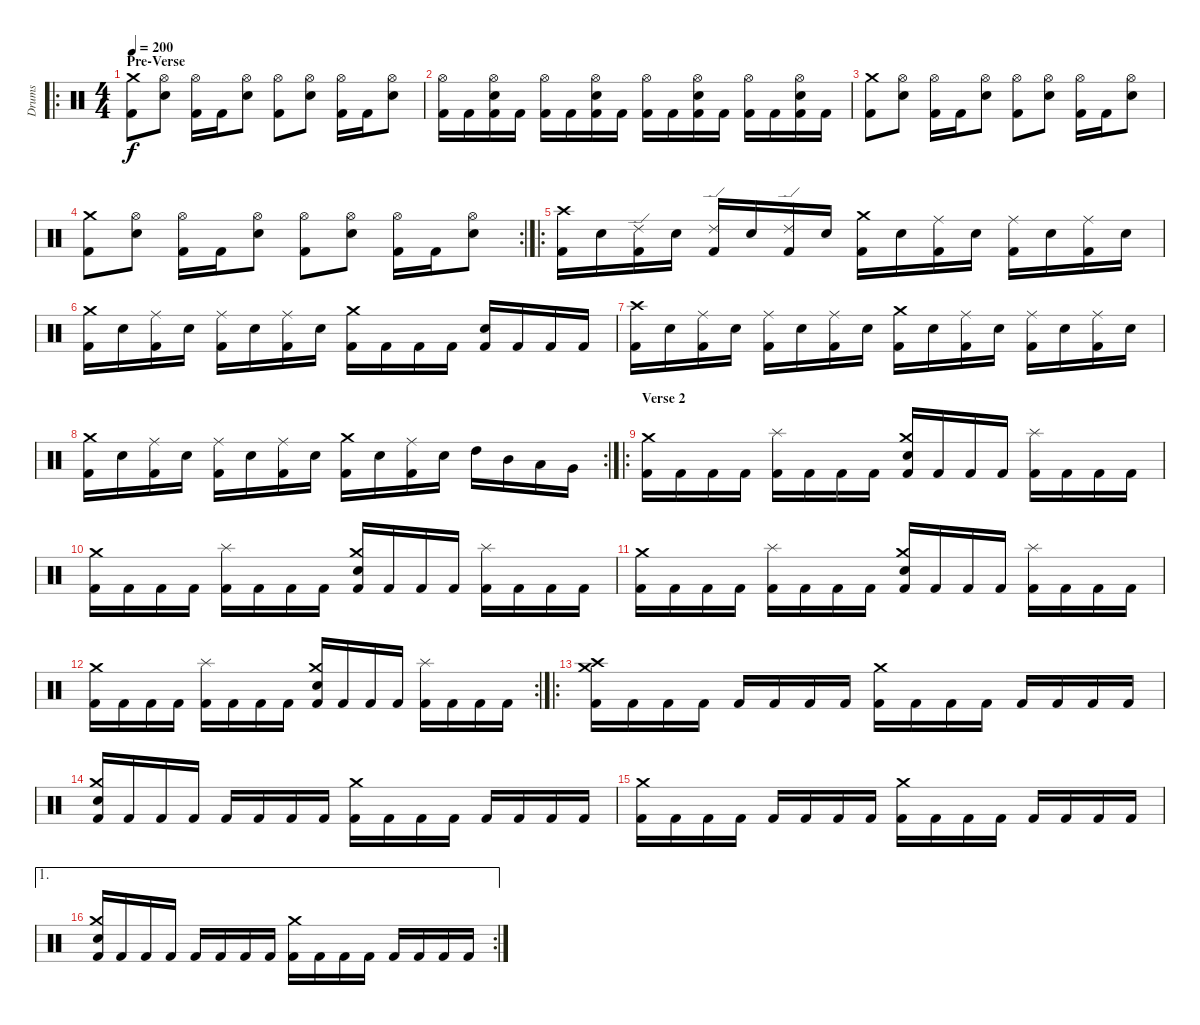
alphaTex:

\track ("Drums" "Drums") {instrument percussion}
\staff {score}
\articulation defaults
\ro
\ts (4 4)
\section ("" "Pre-Verse")
\tempo 200
\clef neutral
\ks c
("Kick (hit) 2" "Crash medium (hit)").8{dy f} ("Electric Snare (hit)" "Hi-Hat (open)").8 ("Kick (hit) 2" "Hi-Hat (open)").16 "Kick (hit) 2".16 ("Electric Snare (hit)" "Hi-Hat (open)").8 ("Kick (hit) 2" "Hi-Hat (open)").8 ("Electric Snare (hit)" "Hi-Hat (open)").8 ("Kick (hit) 2" "Hi-Hat (open)").16 "Kick (hit) 2".16 ("Electric Snare (hit)" "Hi-Hat (open)").8 |
("Kick (hit) 2" "Hi-Hat (open)").16 "Kick (hit) 2".16 ("Kick (hit) 2" "Electric Snare (hit)" "Hi-Hat (open)").16 "Kick (hit) 2".16 ("Kick (hit) 2" "Hi-Hat (open)").16 "Kick (hit) 2".16 ("Kick (hit) 2" "Electric Snare (hit)" "Hi-Hat (open)").16 "Kick (hit) 2".16 ("Kick (hit) 2" "Hi-Hat (open)").16 "Kick (hit) 2".16 ("Kick (hit) 2" "Electric Snare (hit)" "Hi-Hat (open)").16 "Kick (hit) 2".16 ("Kick (hit) 2" "Hi-Hat (open)").16 "Kick (hit) 2".16 ("Kick (hit) 2" "Electric Snare (hit)" "Hi-Hat (open)").16 "Kick (hit) 2".16 |
("Kick (hit) 2" "Crash medium (hit)").8 ("Electric Snare (hit)" "Hi-Hat (open)").8 ("Kick (hit) 2" "Hi-Hat (open)").16 "Kick (hit) 2".16 ("Electric Snare (hit)" "Hi-Hat (open)").8 ("Kick (hit) 2" "Hi-Hat (open)").8 ("Electric Snare (hit)" "Hi-Hat (open)").8 ("Kick (hit) 2" "Hi-Hat (open)").16 "Kick (hit) 2".16 ("Electric Snare (hit)" "Hi-Hat (open)").8 |
\rc 2
("Kick (hit) 2" "Crash medium (hit)").8 ("Electric Snare (hit)" "Hi-Hat (open)").8 ("Kick (hit) 2" "Hi-Hat (open)").16 "Kick (hit) 2".16 ("Electric Snare (hit)" "Hi-Hat (open)").8 ("Kick (hit) 2" "Hi-Hat (open)").8 ("Electric Snare (hit)" "Hi-Hat (open)").8 ("Kick (hit) 2" "Hi-Hat (open)").16 "Kick (hit) 2".16 ("Electric Snare (hit)" "Hi-Hat (open)").8 |
\ro
("Kick (hit) 2" "Crash high (hit)").16 "Electric Snare (hit)".16 ("Kick (hit) 2" "Ride (edge) 2").16 "Electric Snare (hit)".16 ("Kick (hit) 2" "Ride (edge) 2").16 "Electric Snare (hit)".16 ("Kick (hit) 2" "Ride (edge) 2").16 "Electric Snare (hit)".16 ("Kick (hit) 2" "Crash medium (hit)").16 "Electric Snare (hit)".16 ("Kick (hit) 2" "Ride (middle)").16 "Electric Snare (hit)".16 ("Kick (hit) 2" "Ride (middle)").16 "Electric Snare (hit)".16 ("Kick (hit) 2" "Ride (middle)").16 "Electric Snare (hit)".16 |
("Kick (hit) 2" "Crash medium (hit)").16 "Electric Snare (hit)".16 ("Kick (hit) 2" "Ride (middle)").16 "Electric Snare (hit)".16 ("Kick (hit) 2" "Ride (middle)").16 "Electric Snare (hit)".16 ("Kick (hit) 2" "Ride (middle)").16 "Electric Snare (hit)".16 ("Kick (hit) 2" "Crash medium (hit)").16 "Kick (hit) 2".16 "Kick (hit) 2".16 "Kick (hit) 2".16 ("Kick (hit) 2" "Electric Snare (hit)").16 "Kick (hit) 2".16 "Kick (hit) 2".16 "Kick (hit) 2".16 |
("Kick (hit) 2" "Crash high (hit)").16 "Electric Snare (hit)".16 ("Kick (hit) 2" "Ride (middle)").16 "Electric Snare (hit)".16 ("Kick (hit) 2" "Ride (middle)").16 "Electric Snare (hit)".16 ("Kick (hit) 2" "Ride (middle)").16 "Electric Snare (hit)".16 ("Kick (hit) 2" "Crash medium (hit)").16 "Electric Snare (hit)".16 ("Kick (hit) 2" "Ride (middle)").16 "Electric Snare (hit)".16 ("Kick (hit) 2" "Ride (middle)").16 "Electric Snare (hit)".16 ("Kick (hit) 2" "Ride (middle)").16 "Electric Snare (hit)".16 |
\rc 2
("Kick (hit) 2" "Crash medium (hit)").16 "Electric Snare (hit)".16 ("Kick (hit) 2" "Ride (middle)").16 "Electric Snare (hit)".16 ("Kick (hit) 2" "Ride (middle)").16 "Electric Snare (hit)".16 ("Kick (hit) 2" "Ride (middle)").16 "Electric Snare (hit)".16 ("Kick (hit) 2" "Crash medium (hit)").16 "Electric Snare (hit)".16 ("Kick (hit) 2" "Ride (middle)").16 "Electric Snare (hit)".16 "High Tom (hit)".16 "Mid Tom (hit)".16 "Low Tom (hit)".16 "Very Low Tom (hit)".16 |
\ro
\section ("" "Verse 2")
("Kick (hit) 2" "Crash medium (hit)").16 "Kick (hit) 2".16 "Kick (hit) 2".16 "Kick (hit) 2".16 ("Kick (hit) 2" "Splash (hit)").16 "Kick (hit) 2".16 "Kick (hit) 2".16 "Kick (hit) 2".16 ("Kick (hit) 2" "Electric Snare (hit)" "Crash medium (hit)").16 "Kick (hit) 2".16 "Kick (hit) 2".16 "Kick (hit) 2".16 ("Kick (hit) 2" "Splash (hit)").16 "Kick (hit) 2".16 "Kick (hit) 2".16 "Kick (hit) 2".16 |
("Kick (hit) 2" "Crash medium (hit)").16 "Kick (hit) 2".16 "Kick (hit) 2".16 "Kick (hit) 2".16 ("Kick (hit) 2" "Splash (hit)").16 "Kick (hit) 2".16 "Kick (hit) 2".16 "Kick (hit) 2".16 ("Kick (hit) 2" "Electric Snare (hit)" "Crash medium (hit)").16 "Kick (hit) 2".16 "Kick (hit) 2".16 "Kick (hit) 2".16 ("Kick (hit) 2" "Splash (hit)").16 "Kick (hit) 2".16 "Kick (hit) 2".16 "Kick (hit) 2".16 |
("Kick (hit) 2" "Crash medium (hit)").16 "Kick (hit) 2".16 "Kick (hit) 2".16 "Kick (hit) 2".16 ("Kick (hit) 2" "Splash (hit)").16 "Kick (hit) 2".16 "Kick (hit) 2".16 "Kick (hit) 2".16 ("Kick (hit) 2" "Electric Snare (hit)" "Crash medium (hit)").16 "Kick (hit) 2".16 "Kick (hit) 2".16 "Kick (hit) 2".16 ("Kick (hit) 2" "Splash (hit)").16 "Kick (hit) 2".16 "Kick (hit) 2".16 "Kick (hit) 2".16 |
\rc 2
("Kick (hit) 2" "Crash medium (hit)").16 "Kick (hit) 2".16 "Kick (hit) 2".16 "Kick (hit) 2".16 ("Kick (hit) 2" "Splash (hit)").16 "Kick (hit) 2".16 "Kick (hit) 2".16 "Kick (hit) 2".16 ("Kick (hit) 2" "Electric Snare (hit)" "Crash medium (hit)").16 "Kick (hit) 2".16 "Kick (hit) 2".16 "Kick (hit) 2".16 ("Kick (hit) 2" "Splash (hit)").16 "Kick (hit) 2".16 "Kick (hit) 2".16 "Kick (hit) 2".16 |
\ro
("Kick (hit) 2" "Crash medium (hit)" "Crash high (hit)").16 "Kick (hit) 2".16 "Kick (hit) 2".16 "Kick (hit) 2".16 "Kick (hit) 2".16 "Kick (hit) 2".16 "Kick (hit) 2".16 "Kick (hit) 2".16 ("Kick (hit) 2" "Crash medium (hit)").16 "Kick (hit) 2".16 "Kick (hit) 2".16 "Kick (hit) 2".16 "Kick (hit) 2".16 "Kick (hit) 2".16 "Kick (hit) 2".16 "Kick (hit) 2".16 |
("Kick (hit) 2" "Electric Snare (hit)" "Crash medium (hit)").16 "Kick (hit) 2".16 "Kick (hit) 2".16 "Kick (hit) 2".16 "Kick (hit) 2".16 "Kick (hit) 2".16 "Kick (hit) 2".16 "Kick (hit) 2".16 ("Kick (hit) 2" "Crash medium (hit)").16 "Kick (hit) 2".16 "Kick (hit) 2".16 "Kick (hit) 2".16 "Kick (hit) 2".16 "Kick (hit) 2".16 "Kick (hit) 2".16 "Kick (hit) 2".16 |
("Kick (hit) 2" "Crash medium (hit)").16 "Kick (hit) 2".16 "Kick (hit) 2".16 "Kick (hit) 2".16 "Kick (hit) 2".16 "Kick (hit) 2".16 "Kick (hit) 2".16 "Kick (hit) 2".16 ("Kick (hit) 2" "Crash medium (hit)").16 "Kick (hit) 2".16 "Kick (hit) 2".16 "Kick (hit) 2".16 "Kick (hit) 2".16 "Kick (hit) 2".16 "Kick (hit) 2".16 "Kick (hit) 2".16 |
\ae 1
\rc 2
("Kick (hit) 2" "Electric Snare (hit)" "Crash medium (hit)").16 "Kick (hit) 2".16 "Kick (hit) 2".16 "Kick (hit) 2".16 "Kick (hit) 2".16 "Kick (hit) 2".16 "Kick (hit) 2".16 "Kick (hit) 2".16 ("Kick (hit) 2" "Crash medium (hit)").16 "Kick (hit) 2".16 "Kick (hit) 2".16 "Kick (hit) 2".16 "Kick (hit) 2".16 "Kick (hit) 2".16 "Kick (hit) 2".16 "Kick (hit) 2".16
